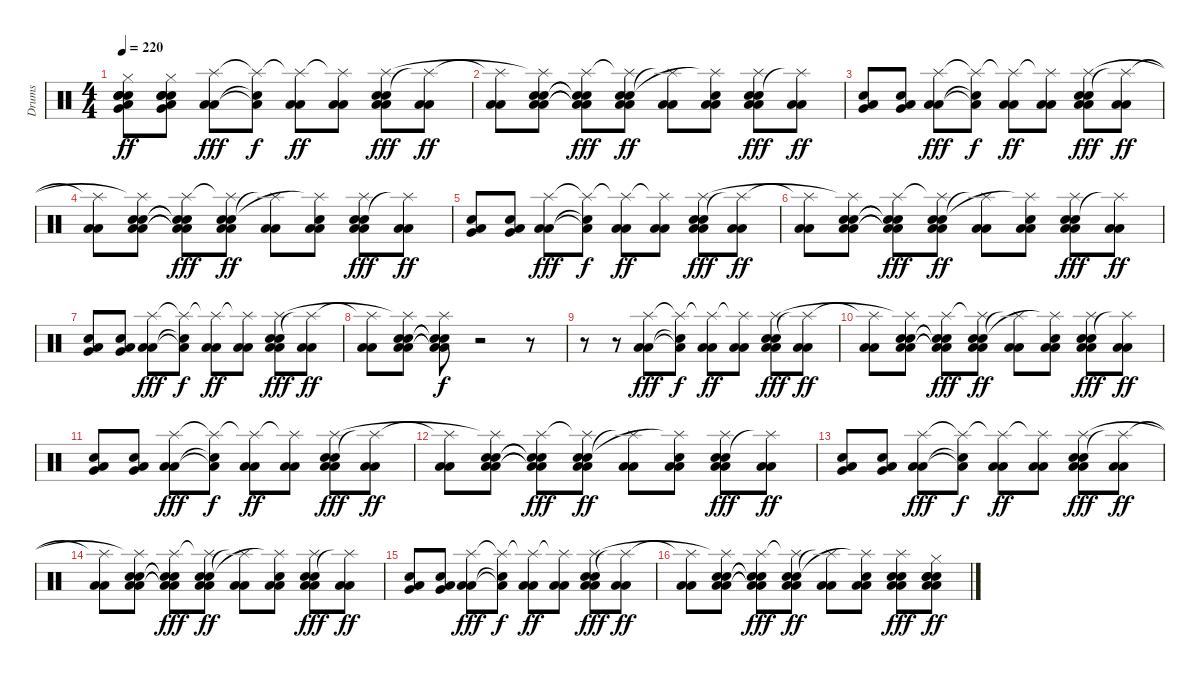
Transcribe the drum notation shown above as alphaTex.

\track ("Drums" "Drums") {instrument percussion}
\staff {score}
\articulation defaults
\ts (4 4)
\tempo 220
\clef neutral
\ks c
("Very Low Tom (hit)" "Electric Snare (hit)" "Low Floor Tom (hit)" "Electric Snare (hit)" "Snare (hit) 2" "Hi-Hat (closed)").8{dy ff} ("Very Low Tom (hit)" "Electric Snare (hit)" "Low Floor Tom (hit)" "Electric Snare (hit)" "Snare (hit) 2" "Hi-Hat (closed)").8 ("Low Floor Tom (hit)" "Low Floor Tom (hit)" "Splash (hit)").8{dy fff} ("Low Floor Tom (hit)"{t} "Snare (hit)"{t} "Splash (hit)"{t}).8{dy f} ("Low Floor Tom (hit)" "Low Floor Tom (hit)" "Splash (hit)"{t}).8{dy ff} ("Low Floor Tom (hit)" "Low Floor Tom (hit)" "Splash (hit)"{t}).8 ("Low Floor Tom (hit)" "Low Floor Tom (hit)" "Electric Snare (hit)" "Snare (hit) 2" "Splash (hit)").8{dy fff} ("Low Floor Tom (hit)" "Low Floor Tom (hit)" "Splash (hit)"{t}).8{dy ff} |
("Low Floor Tom (hit)" "Low Floor Tom (hit)" "Splash (hit)"{t}).8 ("Low Floor Tom (hit)" "Low Floor Tom (hit)" "Electric Snare (hit)" "Snare (hit) 2" "Splash (hit)"{t}).8 ("Low Floor Tom (hit)"{t} "Low Floor Tom (hit)"{t} "Electric Snare (hit)"{t} "Snare (hit) 2"{t} "Splash (hit)").8{dy fff} ("Low Floor Tom (hit)" "Low Floor Tom (hit)" "Electric Snare (hit)" "Snare (hit) 2" "Splash (hit)"{t}).8{dy ff} ("Low Floor Tom (hit)" "Low Floor Tom (hit)" "Splash (hit)"{t}).8 ("Low Floor Tom (hit)" "Low Floor Tom (hit)" "Electric Snare (hit)" "Splash (hit)"{t}).8 ("Low Floor Tom (hit)" "Low Floor Tom (hit)" "Electric Snare (hit)" "Snare (hit) 2" "Splash (hit)").8{dy fff} ("Low Floor Tom (hit)" "Low Floor Tom (hit)" "Splash (hit)"{t}).8{dy ff} |
("Very Low Tom (hit)" "Electric Snare (hit)" "Low Floor Tom (hit)").8 ("Very Low Tom (hit)" "Electric Snare (hit)" "Low Floor Tom (hit)").8 ("Low Floor Tom (hit)" "Low Floor Tom (hit)" "Splash (hit)").8{dy fff} ("Low Floor Tom (hit)"{t} "Snare (hit)"{t} "Splash (hit)"{t}).8{dy f} ("Low Floor Tom (hit)" "Low Floor Tom (hit)" "Splash (hit)"{t}).8{dy ff} ("Low Floor Tom (hit)" "Low Floor Tom (hit)" "Splash (hit)"{t}).8 ("Low Floor Tom (hit)" "Low Floor Tom (hit)" "Electric Snare (hit)" "Snare (hit) 2" "Splash (hit)").8{dy fff} ("Low Floor Tom (hit)" "Low Floor Tom (hit)" "Splash (hit)"{t}).8{dy ff} |
("Low Floor Tom (hit)" "Low Floor Tom (hit)" "Splash (hit)"{t}).8 ("Low Floor Tom (hit)" "Low Floor Tom (hit)" "Electric Snare (hit)" "Snare (hit) 2" "Splash (hit)"{t}).8 ("Low Floor Tom (hit)"{t} "Low Floor Tom (hit)"{t} "Electric Snare (hit)"{t} "Snare (hit) 2"{t} "Splash (hit)").8{dy fff} ("Low Floor Tom (hit)" "Low Floor Tom (hit)" "Electric Snare (hit)" "Snare (hit) 2" "Splash (hit)"{t}).8{dy ff} ("Low Floor Tom (hit)" "Low Floor Tom (hit)" "Splash (hit)"{t}).8 ("Low Floor Tom (hit)" "Low Floor Tom (hit)" "Electric Snare (hit)" "Splash (hit)"{t}).8 ("Low Floor Tom (hit)" "Low Floor Tom (hit)" "Electric Snare (hit)" "Snare (hit) 2" "Splash (hit)").8{dy fff} ("Low Floor Tom (hit)" "Low Floor Tom (hit)" "Splash (hit)"{t}).8{dy ff} |
("Very Low Tom (hit)" "Electric Snare (hit)" "Low Floor Tom (hit)").8 ("Very Low Tom (hit)" "Electric Snare (hit)" "Low Floor Tom (hit)").8 ("Low Floor Tom (hit)" "Low Floor Tom (hit)" "Splash (hit)").8{dy fff} ("Low Floor Tom (hit)"{t} "Snare (hit)"{t} "Splash (hit)"{t}).8{dy f} ("Low Floor Tom (hit)" "Low Floor Tom (hit)" "Splash (hit)"{t}).8{dy ff} ("Low Floor Tom (hit)" "Low Floor Tom (hit)" "Splash (hit)"{t}).8 ("Low Floor Tom (hit)" "Low Floor Tom (hit)" "Electric Snare (hit)" "Snare (hit) 2" "Splash (hit)").8{dy fff} ("Low Floor Tom (hit)" "Low Floor Tom (hit)" "Splash (hit)"{t}).8{dy ff} |
("Low Floor Tom (hit)" "Low Floor Tom (hit)" "Splash (hit)"{t}).8 ("Low Floor Tom (hit)" "Low Floor Tom (hit)" "Electric Snare (hit)" "Snare (hit) 2" "Splash (hit)"{t}).8 ("Low Floor Tom (hit)"{t} "Low Floor Tom (hit)"{t} "Electric Snare (hit)"{t} "Snare (hit) 2"{t} "Splash (hit)").8{dy fff} ("Low Floor Tom (hit)" "Low Floor Tom (hit)" "Electric Snare (hit)" "Snare (hit) 2" "Splash (hit)"{t}).8{dy ff} ("Low Floor Tom (hit)" "Low Floor Tom (hit)" "Splash (hit)"{t}).8 ("Low Floor Tom (hit)" "Low Floor Tom (hit)" "Electric Snare (hit)" "Splash (hit)"{t}).8 ("Low Floor Tom (hit)" "Low Floor Tom (hit)" "Electric Snare (hit)" "Snare (hit) 2" "Splash (hit)").8{dy fff} ("Low Floor Tom (hit)" "Low Floor Tom (hit)" "Splash (hit)"{t}).8{dy ff} |
("Very Low Tom (hit)" "Electric Snare (hit)" "Low Floor Tom (hit)").8 ("Very Low Tom (hit)" "Electric Snare (hit)" "Low Floor Tom (hit)").8 ("Low Floor Tom (hit)" "Low Floor Tom (hit)" "Splash (hit)").8{dy fff} ("Low Floor Tom (hit)"{t} "Snare (hit)"{t} "Splash (hit)"{t}).8{dy f} ("Low Floor Tom (hit)" "Low Floor Tom (hit)" "Splash (hit)"{t}).8{dy ff} ("Low Floor Tom (hit)" "Low Floor Tom (hit)" "Splash (hit)"{t}).8 ("Low Floor Tom (hit)" "Low Floor Tom (hit)" "Electric Snare (hit)" "Snare (hit) 2" "Splash (hit)").8{dy fff} ("Low Floor Tom (hit)" "Low Floor Tom (hit)" "Splash (hit)"{t}).8{dy ff} |
("Low Floor Tom (hit)" "Low Floor Tom (hit)" "Splash (hit)"{t}).8 ("Low Floor Tom (hit)" "Low Floor Tom (hit)" "Electric Snare (hit)" "Snare (hit) 2" "Splash (hit)"{t}).8 ("Low Floor Tom (hit)"{t} "Low Floor Tom (hit)"{t} "Electric Snare (hit)"{t} "Snare (hit) 2"{t} "Splash (hit)").8{dy f} r.2 r.8 |
r.8 r.8 ("Low Floor Tom (hit)" "Low Floor Tom (hit)" "Splash (hit)").8{dy fff} ("Low Floor Tom (hit)"{t} "Snare (hit)"{t} "Splash (hit)"{t}).8{dy f} ("Low Floor Tom (hit)" "Low Floor Tom (hit)" "Splash (hit)"{t}).8{dy ff} ("Low Floor Tom (hit)" "Low Floor Tom (hit)" "Splash (hit)"{t}).8 ("Low Floor Tom (hit)" "Low Floor Tom (hit)" "Electric Snare (hit)" "Snare (hit) 2" "Splash (hit)").8{dy fff} ("Low Floor Tom (hit)" "Low Floor Tom (hit)" "Splash (hit)"{t}).8{dy ff} |
("Low Floor Tom (hit)" "Low Floor Tom (hit)" "Splash (hit)"{t}).8 ("Low Floor Tom (hit)" "Low Floor Tom (hit)" "Electric Snare (hit)" "Snare (hit) 2" "Splash (hit)"{t}).8 ("Low Floor Tom (hit)"{t} "Low Floor Tom (hit)"{t} "Electric Snare (hit)"{t} "Snare (hit) 2"{t} "Splash (hit)").8{dy fff} ("Low Floor Tom (hit)" "Low Floor Tom (hit)" "Electric Snare (hit)" "Snare (hit) 2" "Splash (hit)"{t}).8{dy ff} ("Low Floor Tom (hit)" "Low Floor Tom (hit)" "Splash (hit)"{t}).8 ("Low Floor Tom (hit)" "Low Floor Tom (hit)" "Electric Snare (hit)" "Splash (hit)"{t}).8 ("Low Floor Tom (hit)" "Low Floor Tom (hit)" "Electric Snare (hit)" "Snare (hit) 2" "Splash (hit)").8{dy fff} ("Low Floor Tom (hit)" "Low Floor Tom (hit)" "Splash (hit)"{t}).8{dy ff} |
("Very Low Tom (hit)" "Electric Snare (hit)" "Low Floor Tom (hit)").8 ("Very Low Tom (hit)" "Electric Snare (hit)" "Low Floor Tom (hit)").8 ("Low Floor Tom (hit)" "Low Floor Tom (hit)" "Splash (hit)").8{dy fff} ("Low Floor Tom (hit)"{t} "Snare (hit)"{t} "Splash (hit)"{t}).8{dy f} ("Low Floor Tom (hit)" "Low Floor Tom (hit)" "Splash (hit)"{t}).8{dy ff} ("Low Floor Tom (hit)" "Low Floor Tom (hit)" "Splash (hit)"{t}).8 ("Low Floor Tom (hit)" "Low Floor Tom (hit)" "Electric Snare (hit)" "Snare (hit) 2" "Splash (hit)").8{dy fff} ("Low Floor Tom (hit)" "Low Floor Tom (hit)" "Splash (hit)"{t}).8{dy ff} |
("Low Floor Tom (hit)" "Low Floor Tom (hit)" "Splash (hit)"{t}).8 ("Low Floor Tom (hit)" "Low Floor Tom (hit)" "Electric Snare (hit)" "Snare (hit) 2" "Splash (hit)"{t}).8 ("Low Floor Tom (hit)"{t} "Low Floor Tom (hit)"{t} "Electric Snare (hit)"{t} "Snare (hit) 2"{t} "Splash (hit)").8{dy fff} ("Low Floor Tom (hit)" "Low Floor Tom (hit)" "Electric Snare (hit)" "Snare (hit) 2" "Splash (hit)"{t}).8{dy ff} ("Low Floor Tom (hit)" "Low Floor Tom (hit)" "Splash (hit)"{t}).8 ("Low Floor Tom (hit)" "Low Floor Tom (hit)" "Electric Snare (hit)" "Splash (hit)"{t}).8 ("Low Floor Tom (hit)" "Low Floor Tom (hit)" "Electric Snare (hit)" "Snare (hit) 2" "Splash (hit)").8{dy fff} ("Low Floor Tom (hit)" "Low Floor Tom (hit)" "Splash (hit)"{t}).8{dy ff} |
("Very Low Tom (hit)" "Electric Snare (hit)" "Low Floor Tom (hit)").8 ("Very Low Tom (hit)" "Electric Snare (hit)" "Low Floor Tom (hit)").8 ("Low Floor Tom (hit)" "Low Floor Tom (hit)" "Splash (hit)").8{dy fff} ("Low Floor Tom (hit)"{t} "Snare (hit)"{t} "Splash (hit)"{t}).8{dy f} ("Low Floor Tom (hit)" "Low Floor Tom (hit)" "Splash (hit)"{t}).8{dy ff} ("Low Floor Tom (hit)" "Low Floor Tom (hit)" "Splash (hit)"{t}).8 ("Low Floor Tom (hit)" "Low Floor Tom (hit)" "Electric Snare (hit)" "Snare (hit) 2" "Splash (hit)").8{dy fff} ("Low Floor Tom (hit)" "Low Floor Tom (hit)" "Splash (hit)"{t}).8{dy ff} |
("Low Floor Tom (hit)" "Low Floor Tom (hit)" "Splash (hit)"{t}).8 ("Low Floor Tom (hit)" "Low Floor Tom (hit)" "Electric Snare (hit)" "Snare (hit) 2" "Splash (hit)"{t}).8 ("Low Floor Tom (hit)"{t} "Low Floor Tom (hit)"{t} "Electric Snare (hit)"{t} "Snare (hit) 2"{t} "Splash (hit)").8{dy fff} ("Low Floor Tom (hit)" "Low Floor Tom (hit)" "Electric Snare (hit)" "Snare (hit) 2" "Splash (hit)"{t}).8{dy ff} ("Low Floor Tom (hit)" "Low Floor Tom (hit)" "Splash (hit)"{t}).8 ("Low Floor Tom (hit)" "Low Floor Tom (hit)" "Electric Snare (hit)" "Splash (hit)"{t}).8 ("Low Floor Tom (hit)" "Low Floor Tom (hit)" "Electric Snare (hit)" "Snare (hit) 2" "Splash (hit)").8{dy fff} ("Low Floor Tom (hit)" "Low Floor Tom (hit)" "Splash (hit)"{t}).8{dy ff} |
("Very Low Tom (hit)" "Electric Snare (hit)" "Low Floor Tom (hit)").8 ("Very Low Tom (hit)" "Electric Snare (hit)" "Low Floor Tom (hit)").8 ("Low Floor Tom (hit)" "Low Floor Tom (hit)" "Splash (hit)").8{dy fff} ("Low Floor Tom (hit)"{t} "Snare (hit)"{t} "Splash (hit)"{t}).8{dy f} ("Low Floor Tom (hit)" "Low Floor Tom (hit)" "Splash (hit)"{t}).8{dy ff} ("Low Floor Tom (hit)" "Low Floor Tom (hit)" "Splash (hit)"{t}).8 ("Low Floor Tom (hit)" "Low Floor Tom (hit)" "Electric Snare (hit)" "Snare (hit) 2" "Splash (hit)").8{dy fff} ("Low Floor Tom (hit)" "Low Floor Tom (hit)" "Splash (hit)"{t}).8{dy ff} |
("Low Floor Tom (hit)" "Low Floor Tom (hit)" "Splash (hit)"{t}).8 ("Low Floor Tom (hit)" "Low Floor Tom (hit)" "Electric Snare (hit)" "Snare (hit) 2" "Splash (hit)"{t}).8 ("Low Floor Tom (hit)"{t} "Low Floor Tom (hit)"{t} "Electric Snare (hit)"{t} "Snare (hit) 2"{t} "Splash (hit)").8{dy fff} ("Low Floor Tom (hit)" "Low Floor Tom (hit)" "Electric Snare (hit)" "Snare (hit) 2" "Splash (hit)"{t}).8{dy ff} ("Low Floor Tom (hit)" "Low Floor Tom (hit)" "Splash (hit)"{t}).8 ("Low Floor Tom (hit)" "Low Floor Tom (hit)" "Electric Snare (hit)" "Splash (hit)"{t}).8 ("Low Floor Tom (hit)" "Low Floor Tom (hit)" "Electric Snare (hit)" "Snare (hit) 2" "Splash (hit)").8{dy fff} ("Low Floor Tom (hit)" "Low Floor Tom (hit)" "Electric Snare (hit)" "Snare (hit) 2" "Electric Snare (hit)" "Hi-Hat (closed)").8{dy ff}
